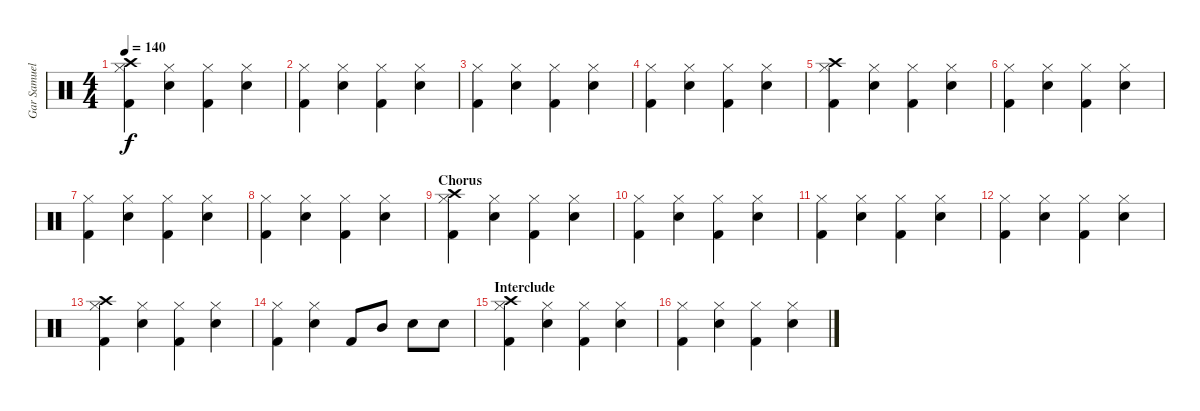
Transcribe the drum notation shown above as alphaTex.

\track ("Gar Samuelson (Drums)" "Gar Samuel") {instrument percussion}
\staff {score}
\articulation defaults
\ts (4 4)
\tempo 140
\clef neutral
\ks c
("Crash high (hit)" "Hi-Hat (closed)" "Kick (hit) 2").4{dy f} ("Electric Snare (hit)" "Hi-Hat (closed)").4 ("Hi-Hat (closed)" "Kick (hit) 2").4 ("Electric Snare (hit)" "Hi-Hat (closed)").4 |
("Hi-Hat (closed)" "Kick (hit) 2").4 ("Electric Snare (hit)" "Hi-Hat (closed)").4 ("Hi-Hat (closed)" "Kick (hit) 2").4 ("Electric Snare (hit)" "Hi-Hat (closed)").4 |
("Hi-Hat (closed)" "Kick (hit) 2").4 ("Electric Snare (hit)" "Hi-Hat (closed)").4 ("Hi-Hat (closed)" "Kick (hit) 2").4 ("Electric Snare (hit)" "Hi-Hat (closed)").4 |
("Hi-Hat (closed)" "Kick (hit) 2").4 ("Electric Snare (hit)" "Hi-Hat (closed)").4 ("Hi-Hat (closed)" "Kick (hit) 2").4 ("Electric Snare (hit)" "Hi-Hat (closed)").4 |
("Crash high (hit)" "Hi-Hat (closed)" "Kick (hit) 2").4 ("Electric Snare (hit)" "Hi-Hat (closed)").4 ("Hi-Hat (closed)" "Kick (hit) 2").4 ("Electric Snare (hit)" "Hi-Hat (closed)").4 |
("Hi-Hat (closed)" "Kick (hit) 2").4 ("Electric Snare (hit)" "Hi-Hat (closed)").4 ("Hi-Hat (closed)" "Kick (hit) 2").4 ("Electric Snare (hit)" "Hi-Hat (closed)").4 |
("Hi-Hat (closed)" "Kick (hit) 2").4 ("Electric Snare (hit)" "Hi-Hat (closed)").4 ("Hi-Hat (closed)" "Kick (hit) 2").4 ("Electric Snare (hit)" "Hi-Hat (closed)").4 |
("Hi-Hat (closed)" "Kick (hit) 2").4 ("Electric Snare (hit)" "Hi-Hat (closed)").4 ("Hi-Hat (closed)" "Kick (hit) 2").4 ("Electric Snare (hit)" "Hi-Hat (closed)").4 |
\section ("" "Chorus")
("Crash high (hit)" "Hi-Hat (closed)" "Kick (hit) 2").4 ("Electric Snare (hit)" "Hi-Hat (closed)").4 ("Hi-Hat (closed)" "Kick (hit) 2").4 ("Electric Snare (hit)" "Hi-Hat (closed)").4 |
("Hi-Hat (closed)" "Kick (hit) 2").4 ("Electric Snare (hit)" "Hi-Hat (closed)").4 ("Hi-Hat (closed)" "Kick (hit) 2").4 ("Electric Snare (hit)" "Hi-Hat (closed)").4 |
("Hi-Hat (closed)" "Kick (hit) 2").4 ("Electric Snare (hit)" "Hi-Hat (closed)").4 ("Hi-Hat (closed)" "Kick (hit) 2").4 ("Electric Snare (hit)" "Hi-Hat (closed)").4 |
("Hi-Hat (closed)" "Kick (hit) 2").4 ("Electric Snare (hit)" "Hi-Hat (closed)").4 ("Hi-Hat (closed)" "Kick (hit) 2").4 ("Electric Snare (hit)" "Hi-Hat (closed)").4 |
("Crash high (hit)" "Hi-Hat (closed)" "Kick (hit) 2").4 ("Electric Snare (hit)" "Hi-Hat (closed)").4 ("Hi-Hat (closed)" "Kick (hit) 2").4 ("Electric Snare (hit)" "Hi-Hat (closed)").4 |
("Hi-Hat (closed)" "Kick (hit) 2").4 ("Electric Snare (hit)" "Hi-Hat (closed)").4 "Kick (hit) 2".8 "Mid Tom (hit)".8 "Electric Snare (hit)".8 "Electric Snare (hit)".8 |
\section ("" "Interclude")
("Crash high (hit)" "Hi-Hat (closed)" "Kick (hit) 2").4 ("Electric Snare (hit)" "Hi-Hat (closed)").4 ("Hi-Hat (closed)" "Kick (hit) 2").4 ("Electric Snare (hit)" "Hi-Hat (closed)").4 |
("Hi-Hat (closed)" "Kick (hit) 2").4 ("Electric Snare (hit)" "Hi-Hat (closed)").4 ("Hi-Hat (closed)" "Kick (hit) 2").4 ("Electric Snare (hit)" "Hi-Hat (closed)").4
